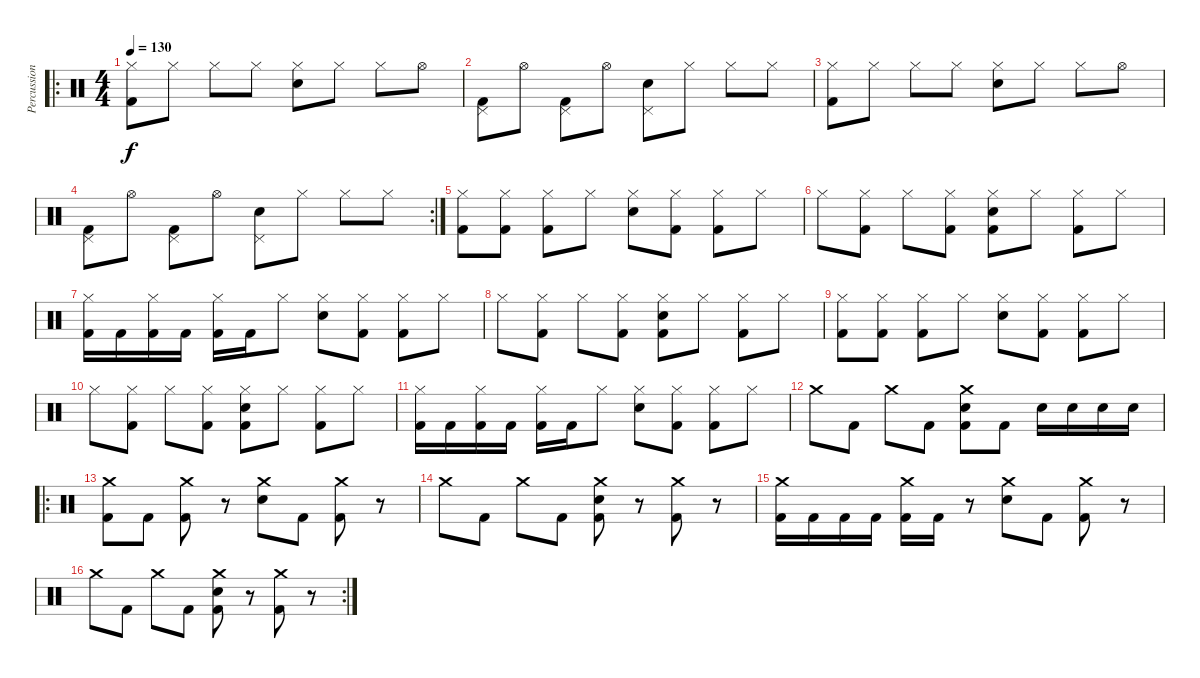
\track ("Percussion" "Percussion") {instrument percussion}
\staff {score}
\articulation defaults
\ro
\ts (4 4)
\tempo 130
\clef neutral
\ks c
("Hi-Hat (closed)" "Kick (hit) 2").8{dy f volume 13} "Hi-Hat (closed)".8 "Hi-Hat (closed)".8 "Hi-Hat (closed)".8 ("Hi-Hat (closed)" "Snare (hit) 2").8 "Hi-Hat (closed)".8 "Hi-Hat (closed)".8 "Hi-Hat (open)".8 |
("Pedal Hi-Hat (hit)" "Kick (hit) 2").8 "Hi-Hat (open)".8 ("Pedal Hi-Hat (hit)" "Kick (hit) 2").8 "Hi-Hat (open)".8 ("Pedal Hi-Hat (hit)" "Snare (hit) 2").8 "Hi-Hat (closed)".8 "Hi-Hat (closed)".8 "Hi-Hat (closed)".8 |
("Hi-Hat (closed)" "Kick (hit) 2").8 "Hi-Hat (closed)".8 "Hi-Hat (closed)".8 "Hi-Hat (closed)".8 ("Hi-Hat (closed)" "Snare (hit) 2").8 "Hi-Hat (closed)".8 "Hi-Hat (closed)".8 "Hi-Hat (open)".8 |
\rc 2
("Pedal Hi-Hat (hit)" "Kick (hit) 2").8 "Hi-Hat (open)".8 ("Pedal Hi-Hat (hit)" "Kick (hit) 2").8 "Hi-Hat (open)".8 ("Pedal Hi-Hat (hit)" "Snare (hit) 2").8 "Hi-Hat (closed)".8 "Hi-Hat (closed)".8 "Hi-Hat (closed)".8 |
("Hi-Hat (closed)" "Kick (hit) 2").8 ("Hi-Hat (closed)" "Kick (hit) 2").8 ("Hi-Hat (closed)" "Kick (hit) 2").8 "Hi-Hat (closed)".8 ("Hi-Hat (closed)" "Snare (hit) 2").8 ("Hi-Hat (closed)" "Kick (hit) 2").8 ("Hi-Hat (closed)" "Kick (hit) 2").8 "Hi-Hat (closed)".8 |
"Hi-Hat (closed)".8 ("Hi-Hat (closed)" "Kick (hit) 2").8 "Hi-Hat (closed)".8 ("Hi-Hat (closed)" "Kick (hit) 2").8 ("Hi-Hat (closed)" "Snare (hit) 2" "Kick (hit) 2").8 "Hi-Hat (closed)".8 ("Hi-Hat (closed)" "Kick (hit) 2").8 "Hi-Hat (closed)".8 |
("Hi-Hat (closed)" "Kick (hit) 2").16 "Kick (hit) 2".16 ("Hi-Hat (closed)" "Kick (hit) 2").16 "Kick (hit) 2".16 ("Hi-Hat (closed)" "Kick (hit) 2").16 "Kick (hit) 2".16 "Hi-Hat (closed)".8 ("Hi-Hat (closed)" "Snare (hit) 2").8 ("Hi-Hat (closed)" "Kick (hit) 2").8 ("Hi-Hat (closed)" "Kick (hit) 2").8 "Hi-Hat (closed)".8 |
"Hi-Hat (closed)".8 ("Hi-Hat (closed)" "Kick (hit) 2").8 "Hi-Hat (closed)".8 ("Hi-Hat (closed)" "Kick (hit) 2").8 ("Hi-Hat (closed)" "Snare (hit) 2" "Kick (hit) 2").8 "Hi-Hat (closed)".8 ("Hi-Hat (closed)" "Kick (hit) 2").8 "Hi-Hat (closed)".8 |
("Hi-Hat (closed)" "Kick (hit) 2").8 ("Hi-Hat (closed)" "Kick (hit) 2").8 ("Hi-Hat (closed)" "Kick (hit) 2").8 "Hi-Hat (closed)".8 ("Hi-Hat (closed)" "Snare (hit) 2").8 ("Hi-Hat (closed)" "Kick (hit) 2").8 ("Hi-Hat (closed)" "Kick (hit) 2").8 "Hi-Hat (closed)".8 |
"Hi-Hat (closed)".8 ("Hi-Hat (closed)" "Kick (hit) 2").8 "Hi-Hat (closed)".8 ("Hi-Hat (closed)" "Kick (hit) 2").8 ("Hi-Hat (closed)" "Snare (hit) 2" "Kick (hit) 2").8 "Hi-Hat (closed)".8 ("Hi-Hat (closed)" "Kick (hit) 2").8 "Hi-Hat (closed)".8 |
("Hi-Hat (closed)" "Kick (hit) 2").16 "Kick (hit) 2".16 ("Hi-Hat (closed)" "Kick (hit) 2").16 "Kick (hit) 2".16 ("Hi-Hat (closed)" "Kick (hit) 2").16 "Kick (hit) 2".16 "Hi-Hat (closed)".8 ("Hi-Hat (closed)" "Snare (hit) 2").8 ("Hi-Hat (closed)" "Kick (hit) 2").8 ("Hi-Hat (closed)" "Kick (hit) 2").8 "Hi-Hat (closed)".8 |
"Crash medium (hit)".8 "Kick (hit) 2".8 "Crash medium (hit)".8 "Kick (hit) 2".8 ("Crash medium (hit)" "Snare (hit) 2" "Kick (hit) 2").8 "Kick (hit) 2".8 "Snare (hit) 2".16 "Snare (hit) 2".16 "Snare (hit) 2".16 "Snare (hit) 2".16 |
\ro
("Crash medium (hit)" "Kick (hit) 2").8 "Kick (hit) 2".8 ("Crash medium (hit)" "Kick (hit) 2").8 r.8 ("Crash medium (hit)" "Snare (hit) 2").8 "Kick (hit) 2".8 ("Crash medium (hit)" "Kick (hit) 2").8 r.8 |
"Crash medium (hit)".8 "Kick (hit) 2".8 "Crash medium (hit)".8 "Kick (hit) 2".8 ("Crash medium (hit)" "Snare (hit) 2" "Kick (hit) 2").8 r.8 ("Crash medium (hit)" "Kick (hit) 2").8 r.8 |
("Crash medium (hit)" "Kick (hit) 2").16 "Kick (hit) 2".16 "Kick (hit) 2".16 "Kick (hit) 2".16 ("Crash medium (hit)" "Kick (hit) 2").16 "Kick (hit) 2".16 r.8 ("Crash medium (hit)" "Snare (hit) 2").8 "Kick (hit) 2".8 ("Crash medium (hit)" "Kick (hit) 2").8 r.8 |
\rc 2 "Crash medium (hit)".8 "Kick (hit) 2".8 "Crash medium (hit)".8 "Kick (hit) 2".8
("Crash medium (hit)" "Snare (hit) 2" "Kick (hit) 2").8 r.8 ("Crash medium (hit)" "Kick (hit) 2").8 r.8
